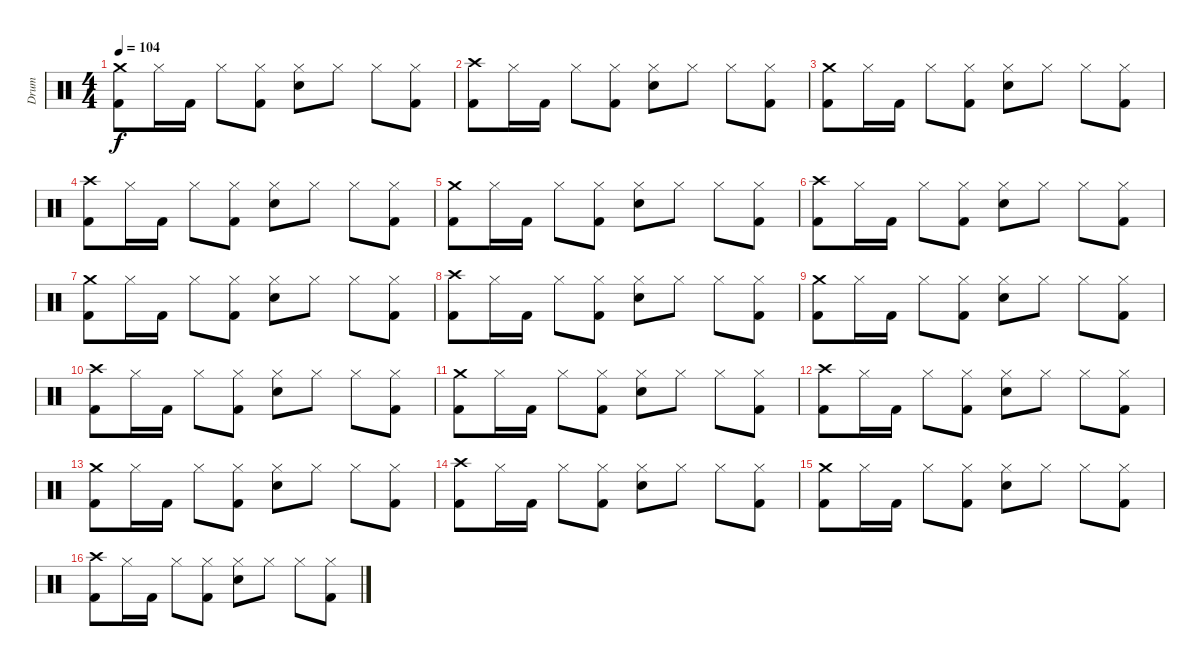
\track ("Drum" "Drum") {instrument percussion}
\staff {score}
\articulation defaults
\ts (4 4)
\tempo 104
\clef neutral
\ks c
("Crash medium (hit)" "Kick (hit) 2").8{dy f} "Hi-Hat (closed)".16 "Kick (hit) 2".16 "Hi-Hat (closed)".8 ("Hi-Hat (closed)" "Kick (hit) 2").8 ("Hi-Hat (closed)" "Snare (hit) 2").8 "Hi-Hat (closed)".8 "Hi-Hat (closed)".8 ("Hi-Hat (closed)" "Kick (hit) 2").8 |
("Crash high (hit)" "Kick (hit) 2").8 "Hi-Hat (closed)".16 "Kick (hit) 2".16 "Hi-Hat (closed)".8 ("Hi-Hat (closed)" "Kick (hit) 2").8 ("Hi-Hat (closed)" "Snare (hit) 2").8 "Hi-Hat (closed)".8 "Hi-Hat (closed)".8 ("Hi-Hat (closed)" "Kick (hit) 2").8 |
("Crash medium (hit)" "Kick (hit) 2").8 "Hi-Hat (closed)".16 "Kick (hit) 2".16 "Hi-Hat (closed)".8 ("Hi-Hat (closed)" "Kick (hit) 2").8 ("Hi-Hat (closed)" "Snare (hit) 2").8 "Hi-Hat (closed)".8 "Hi-Hat (closed)".8 ("Hi-Hat (closed)" "Kick (hit) 2").8 |
("Crash high (hit)" "Kick (hit) 2").8 "Hi-Hat (closed)".16 "Kick (hit) 2".16 "Hi-Hat (closed)".8 ("Hi-Hat (closed)" "Kick (hit) 2").8 ("Hi-Hat (closed)" "Snare (hit) 2").8 "Hi-Hat (closed)".8 "Hi-Hat (closed)".8 ("Hi-Hat (closed)" "Kick (hit) 2").8 |
("Crash medium (hit)" "Kick (hit) 2").8 "Hi-Hat (closed)".16 "Kick (hit) 2".16 "Hi-Hat (closed)".8 ("Hi-Hat (closed)" "Kick (hit) 2").8 ("Hi-Hat (closed)" "Snare (hit) 2").8 "Hi-Hat (closed)".8 "Hi-Hat (closed)".8 ("Hi-Hat (closed)" "Kick (hit) 2").8 |
("Crash high (hit)" "Kick (hit) 2").8 "Hi-Hat (closed)".16 "Kick (hit) 2".16 "Hi-Hat (closed)".8 ("Hi-Hat (closed)" "Kick (hit) 2").8 ("Hi-Hat (closed)" "Snare (hit) 2").8 "Hi-Hat (closed)".8 "Hi-Hat (closed)".8 ("Hi-Hat (closed)" "Kick (hit) 2").8 |
("Crash medium (hit)" "Kick (hit) 2").8 "Hi-Hat (closed)".16 "Kick (hit) 2".16 "Hi-Hat (closed)".8 ("Hi-Hat (closed)" "Kick (hit) 2").8 ("Hi-Hat (closed)" "Snare (hit) 2").8 "Hi-Hat (closed)".8 "Hi-Hat (closed)".8 ("Hi-Hat (closed)" "Kick (hit) 2").8 |
("Crash high (hit)" "Kick (hit) 2").8 "Hi-Hat (closed)".16 "Kick (hit) 2".16 "Hi-Hat (closed)".8 ("Hi-Hat (closed)" "Kick (hit) 2").8 ("Hi-Hat (closed)" "Snare (hit) 2").8 "Hi-Hat (closed)".8 "Hi-Hat (closed)".8 ("Hi-Hat (closed)" "Kick (hit) 2").8 |
("Crash medium (hit)" "Kick (hit) 2").8 "Hi-Hat (closed)".16 "Kick (hit) 2".16 "Hi-Hat (closed)".8 ("Hi-Hat (closed)" "Kick (hit) 2").8 ("Hi-Hat (closed)" "Snare (hit) 2").8 "Hi-Hat (closed)".8 "Hi-Hat (closed)".8 ("Hi-Hat (closed)" "Kick (hit) 2").8 |
("Crash high (hit)" "Kick (hit) 2").8 "Hi-Hat (closed)".16 "Kick (hit) 2".16 "Hi-Hat (closed)".8 ("Hi-Hat (closed)" "Kick (hit) 2").8 ("Hi-Hat (closed)" "Snare (hit) 2").8 "Hi-Hat (closed)".8 "Hi-Hat (closed)".8 ("Hi-Hat (closed)" "Kick (hit) 2").8 |
("Crash medium (hit)" "Kick (hit) 2").8 "Hi-Hat (closed)".16 "Kick (hit) 2".16 "Hi-Hat (closed)".8 ("Hi-Hat (closed)" "Kick (hit) 2").8 ("Hi-Hat (closed)" "Snare (hit) 2").8 "Hi-Hat (closed)".8 "Hi-Hat (closed)".8 ("Hi-Hat (closed)" "Kick (hit) 2").8 |
("Crash high (hit)" "Kick (hit) 2").8 "Hi-Hat (closed)".16 "Kick (hit) 2".16 "Hi-Hat (closed)".8 ("Hi-Hat (closed)" "Kick (hit) 2").8 ("Hi-Hat (closed)" "Snare (hit) 2").8 "Hi-Hat (closed)".8 "Hi-Hat (closed)".8 ("Hi-Hat (closed)" "Kick (hit) 2").8 |
("Crash medium (hit)" "Kick (hit) 2").8 "Hi-Hat (closed)".16 "Kick (hit) 2".16 "Hi-Hat (closed)".8 ("Hi-Hat (closed)" "Kick (hit) 2").8 ("Hi-Hat (closed)" "Snare (hit) 2").8 "Hi-Hat (closed)".8 "Hi-Hat (closed)".8 ("Hi-Hat (closed)" "Kick (hit) 2").8 |
("Crash high (hit)" "Kick (hit) 2").8 "Hi-Hat (closed)".16 "Kick (hit) 2".16 "Hi-Hat (closed)".8 ("Hi-Hat (closed)" "Kick (hit) 2").8 ("Hi-Hat (closed)" "Snare (hit) 2").8 "Hi-Hat (closed)".8 "Hi-Hat (closed)".8 ("Hi-Hat (closed)" "Kick (hit) 2").8 |
("Crash medium (hit)" "Kick (hit) 2").8 "Hi-Hat (closed)".16 "Kick (hit) 2".16 "Hi-Hat (closed)".8 ("Hi-Hat (closed)" "Kick (hit) 2").8 ("Hi-Hat (closed)" "Snare (hit) 2").8 "Hi-Hat (closed)".8 "Hi-Hat (closed)".8 ("Hi-Hat (closed)" "Kick (hit) 2").8 |
("Crash high (hit)" "Kick (hit) 2").8 "Hi-Hat (closed)".16 "Kick (hit) 2".16 "Hi-Hat (closed)".8 ("Hi-Hat (closed)" "Kick (hit) 2").8 ("Hi-Hat (closed)" "Snare (hit) 2").8 "Hi-Hat (closed)".8 "Hi-Hat (closed)".8 ("Hi-Hat (closed)" "Kick (hit) 2").8
